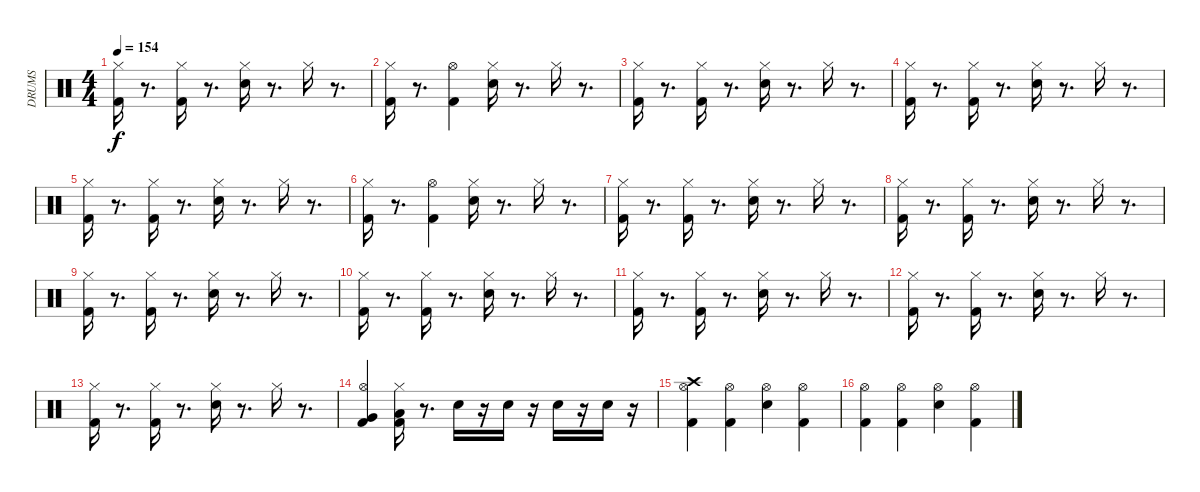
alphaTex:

\track ("DRUMS" "DRUMS") {instrument percussion}
\staff {score}
\articulation defaults
\ts (4 4)
\tempo 154
\clef neutral
\ks c
("Hi-Hat (closed)" "Kick (hit) 2").16{dy f} r.8{d} ("Kick (hit) 2" "Hi-Hat (closed)").16 r.8{d} ("Hi-Hat (closed)" "Snare (hit) 2").16 r.8{d} "Hi-Hat (closed)".16 r.8{d} |
("Hi-Hat (closed)" "Kick (hit) 2").16 r.8{d} ("Hi-Hat (open)" "Kick (hit) 2").4 ("Hi-Hat (closed)" "Snare (hit) 2").16 r.8{d} "Hi-Hat (closed)".16 r.8{d} |
("Hi-Hat (closed)" "Kick (hit) 2").16 r.8{d} ("Hi-Hat (closed)" "Kick (hit) 2").16 r.8{d} ("Hi-Hat (closed)" "Snare (hit) 2").16 r.8{d} "Hi-Hat (closed)".16 r.8{d} |
("Hi-Hat (closed)" "Kick (hit) 2").16 r.8{d} ("Hi-Hat (closed)" "Kick (hit) 2").16 r.8{d} ("Hi-Hat (closed)" "Snare (hit) 2").16 r.8{d} "Hi-Hat (closed)".16 r.8{d} |
("Hi-Hat (closed)" "Kick (hit) 2").16 r.8{d} ("Hi-Hat (closed)" "Kick (hit) 2").16 r.8{d} ("Hi-Hat (closed)" "Snare (hit) 2").16 r.8{d} "Hi-Hat (closed)".16 r.8{d} |
("Hi-Hat (closed)" "Kick (hit) 2").16 r.8{d} ("Hi-Hat (open)" "Kick (hit) 2").4 ("Hi-Hat (closed)" "Snare (hit) 2").16 r.8{d} "Hi-Hat (closed)".16 r.8{d} |
("Hi-Hat (closed)" "Kick (hit) 2").16 r.8{d} ("Hi-Hat (closed)" "Kick (hit) 2").16 r.8{d} ("Hi-Hat (closed)" "Snare (hit) 2").16 r.8{d} "Hi-Hat (closed)".16 r.8{d} |
("Hi-Hat (closed)" "Kick (hit) 2").16 r.8{d} ("Hi-Hat (closed)" "Kick (hit) 2").16 r.8{d} ("Hi-Hat (closed)" "Snare (hit) 2").16 r.8{d} "Hi-Hat (closed)".16 r.8{d} |
("Hi-Hat (closed)" "Kick (hit) 2").16 r.8{d} ("Hi-Hat (closed)" "Kick (hit) 2").16 r.8{d} ("Hi-Hat (closed)" "Snare (hit) 2").16 r.8{d} "Hi-Hat (closed)".16 r.8{d} |
("Hi-Hat (closed)" "Kick (hit) 2").16 r.8{d} ("Hi-Hat (closed)" "Kick (hit) 2").16 r.8{d} ("Hi-Hat (closed)" "Snare (hit) 2").16 r.8{d} "Hi-Hat (closed)".16 r.8{d} |
("Hi-Hat (closed)" "Kick (hit) 2").16 r.8{d} ("Hi-Hat (closed)" "Kick (hit) 2").16 r.8{d} ("Hi-Hat (closed)" "Snare (hit) 2").16 r.8{d} "Hi-Hat (closed)".16 r.8{d} |
("Hi-Hat (closed)" "Kick (hit) 2").16 r.8{d} ("Hi-Hat (closed)" "Kick (hit) 2").16 r.8{d} ("Hi-Hat (closed)" "Snare (hit) 2").16 r.8{d} "Hi-Hat (closed)".16 r.8{d} |
("Hi-Hat (closed)" "Kick (hit) 2").16 r.8{d} ("Hi-Hat (closed)" "Kick (hit) 2").16 r.8{d} ("Hi-Hat (closed)" "Snare (hit) 2").16 r.8{d} "Hi-Hat (closed)".16 r.8{d} |
("Very Low Tom (hit)" "Hi-Hat (open)" "Kick (hit) 2").4 ("Low Floor Tom (hit)" "Hi-Hat (closed)" "Kick (hit) 2").16 r.8{d} "Snare (hit) 2".16 r.16 "Snare (hit) 2".16 r.16 "Snare (hit) 2".16 r.16 "Snare (hit) 2".16 r.16 |
("Crash high (hit)" "Kick (hit) 2" "Hi-Hat (open)").4 ("Hi-Hat (open)" "Kick (hit) 2").4 ("Hi-Hat (open)" "Snare (hit) 2").4 ("Kick (hit) 2" "Hi-Hat (open)").4 |
("Hi-Hat (open)" "Kick (hit) 2").4 ("Hi-Hat (open)" "Kick (hit) 2").4 ("Hi-Hat (open)" "Snare (hit) 2").4 ("Kick (hit) 2" "Hi-Hat (open)").4
